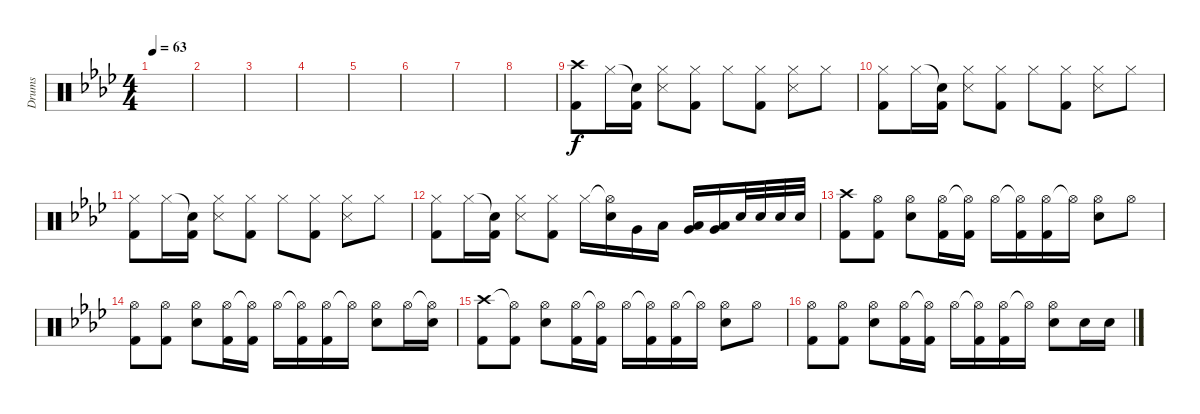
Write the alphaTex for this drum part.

\track ("Drums" "Drums") {instrument percussion}
\staff {score}
\articulation defaults
\ts (4 4)
\tempo 63
\clef neutral
\ks ab
|
|
|
|
|
|
|
|
("Crash high (hit)" "Kick (hit) 2").8 "Hi-Hat (closed)".16 ("Snare (hit)"{t} "Kick (hit) 2").16 ("Hi-Hat (closed)" "Snare (side stick) 3").8 ("Hi-Hat (closed)" "Kick (hit) 2").8 "Hi-Hat (closed)".8 ("Hi-Hat (closed)" "Kick (hit) 2").8 ("Hi-Hat (closed)" "Snare (side stick) 3").8 "Hi-Hat (closed)".8 |
("Hi-Hat (closed)" "Kick (hit) 2").8 "Hi-Hat (closed)".16 ("Snare (hit)"{t} "Kick (hit) 2").16 ("Hi-Hat (closed)" "Snare (side stick) 3").8 ("Hi-Hat (closed)" "Kick (hit) 2").8 "Hi-Hat (closed)".8 ("Hi-Hat (closed)" "Kick (hit) 2").8 ("Hi-Hat (closed)" "Snare (side stick) 3").8 "Hi-Hat (closed)".8 |
("Hi-Hat (closed)" "Kick (hit) 2").8 "Hi-Hat (closed)".16 ("Snare (hit)"{t} "Kick (hit) 2").16 ("Hi-Hat (closed)" "Snare (side stick) 3").8 ("Hi-Hat (closed)" "Kick (hit) 2").8 "Hi-Hat (closed)".8 ("Hi-Hat (closed)" "Kick (hit) 2").8 ("Hi-Hat (closed)" "Snare (side stick) 3").8 "Hi-Hat (closed)".8 |
("Hi-Hat (closed)" "Kick (hit) 2").8 "Hi-Hat (closed)".16 ("Snare (hit)"{t} "Kick (hit) 2").16 ("Hi-Hat (closed)" "Snare (side stick) 3").8 ("Hi-Hat (closed)" "Kick (hit) 2").8 "Hi-Hat (closed)".16 ("Hi-Hat (open)"{t} "Electric Snare (hit)").16 "Very Low Tom (hit)".16 "Low Floor Tom (hit)".16 ("Low Floor Tom (hit)" "Very Low Tom (hit)").16 ("Low Floor Tom (hit)" "Very Low Tom (hit)").16 "Electric Snare (hit)".32 "Electric Snare (hit)".32 "Electric Snare (hit)".32 "Electric Snare (hit)".32 |
("Crash high (hit)" "Kick (hit) 2").8 ("Hi-Hat (open)" "Kick (hit) 2").8 ("Hi-Hat (open)" "Electric Snare (hit)").8 ("Hi-Hat (open)" "Kick (hit) 2").16 ("Hi-Hat (open)"{t} "Kick (hit) 2").16 "Hi-Hat (open)".16 ("Hi-Hat (open)"{t} "Kick (hit) 2").16 ("Hi-Hat (open)" "Kick (hit) 2").16 "Hi-Hat (open)"{t}.16 ("Hi-Hat (open)" "Electric Snare (hit)").8 "Hi-Hat (open)".8 |
("Hi-Hat (open)" "Kick (hit) 2").8 ("Hi-Hat (open)" "Kick (hit) 2").8 ("Hi-Hat (open)" "Electric Snare (hit)").8 ("Hi-Hat (open)" "Kick (hit) 2").16 ("Hi-Hat (open)"{t} "Kick (hit) 2").16 "Hi-Hat (open)".16 ("Hi-Hat (open)"{t} "Kick (hit) 2").16 ("Hi-Hat (open)" "Kick (hit) 2").16 "Hi-Hat (open)"{t}.16 ("Hi-Hat (open)" "Electric Snare (hit)").8 "Hi-Hat (open)".16 ("Hi-Hat (open)"{t} "Electric Snare (hit)").16 |
("Crash high (hit)" "Kick (hit) 2").8 ("Hi-Hat (open)"{t} "Kick (hit) 2").8 ("Hi-Hat (open)" "Electric Snare (hit)").8 ("Hi-Hat (open)" "Kick (hit) 2").16 ("Hi-Hat (open)"{t} "Kick (hit) 2").16 "Hi-Hat (open)".16 ("Hi-Hat (open)"{t} "Kick (hit) 2").16 ("Hi-Hat (open)" "Kick (hit) 2").16 "Hi-Hat (open)"{t}.16 ("Hi-Hat (open)" "Electric Snare (hit)").8 "Hi-Hat (open)".8 |
("Hi-Hat (open)" "Kick (hit) 2").8 ("Hi-Hat (open)" "Kick (hit) 2").8 ("Hi-Hat (open)" "Electric Snare (hit)").8 ("Hi-Hat (open)" "Kick (hit) 2").16 ("Hi-Hat (open)"{t} "Kick (hit) 2").16 "Hi-Hat (open)".16 ("Hi-Hat (open)"{t} "Kick (hit) 2").16 ("Hi-Hat (open)" "Kick (hit) 2").16 "Hi-Hat (open)"{t}.16 ("Hi-Hat (open)" "Electric Snare (hit)").8 "Electric Snare (hit)".16 "Electric Snare (hit)".16
